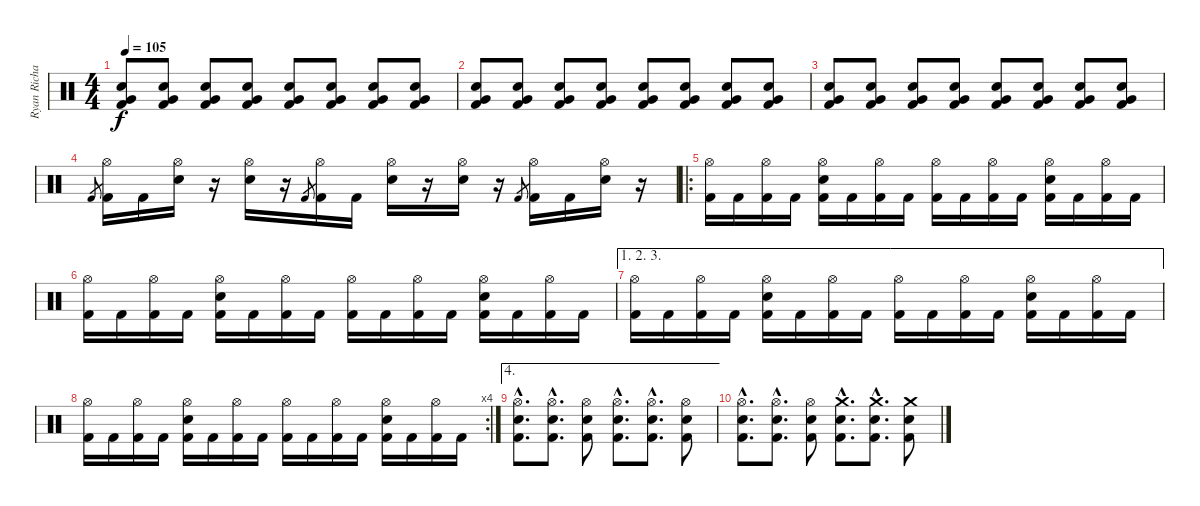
\track ("Ryan Richards" "Ryan Richa") {instrument percussion}
\staff {score}
\articulation defaults
\ts (4 4)
\tempo 105
\clef neutral
\ks c
("Very Low Tom (hit)" "Snare (hit) 2" "Kick (hit) 2").8{dy f} ("Very Low Tom (hit)" "Snare (hit) 2" "Kick (hit) 2").8 ("Very Low Tom (hit)" "Snare (hit) 2" "Kick (hit) 2").8 ("Very Low Tom (hit)" "Snare (hit) 2" "Kick (hit) 2").8 ("Very Low Tom (hit)" "Snare (hit) 2" "Kick (hit) 2").8 ("Very Low Tom (hit)" "Snare (hit) 2" "Kick (hit) 2").8 ("Very Low Tom (hit)" "Snare (hit) 2" "Kick (hit) 2").8 ("Very Low Tom (hit)" "Snare (hit) 2" "Kick (hit) 2").8 |
("Very Low Tom (hit)" "Snare (hit) 2" "Kick (hit) 2").8 ("Very Low Tom (hit)" "Snare (hit) 2" "Kick (hit) 2").8 ("Very Low Tom (hit)" "Snare (hit) 2" "Kick (hit) 2").8 ("Very Low Tom (hit)" "Snare (hit) 2" "Kick (hit) 2").8 ("Very Low Tom (hit)" "Snare (hit) 2" "Kick (hit) 2").8 ("Very Low Tom (hit)" "Snare (hit) 2" "Kick (hit) 2").8 ("Very Low Tom (hit)" "Snare (hit) 2" "Kick (hit) 2").8 ("Very Low Tom (hit)" "Snare (hit) 2" "Kick (hit) 2").8 |
("Very Low Tom (hit)" "Snare (hit) 2" "Kick (hit) 2").8 ("Very Low Tom (hit)" "Snare (hit) 2" "Kick (hit) 2").8 ("Very Low Tom (hit)" "Snare (hit) 2" "Kick (hit) 2").8 ("Very Low Tom (hit)" "Snare (hit) 2" "Kick (hit) 2").8 ("Very Low Tom (hit)" "Snare (hit) 2" "Kick (hit) 2").8 ("Very Low Tom (hit)" "Snare (hit) 2" "Kick (hit) 2").8 ("Very Low Tom (hit)" "Snare (hit) 2" "Kick (hit) 2").8 ("Very Low Tom (hit)" "Snare (hit) 2" "Kick (hit) 2").8 |
"Kick (hit) 2".8{gr} ("Hi-Hat (open)" "Kick (hit) 2").16 "Kick (hit) 2".16 ("Hi-Hat (open)" "Snare (hit) 2").16 r.16 ("Hi-Hat (open)" "Snare (hit) 2").16 r.16 "Kick (hit) 2".8{gr} ("Hi-Hat (open)" "Kick (hit) 2").16 "Kick (hit) 2".16 ("Hi-Hat (open)" "Snare (hit) 2").16 r.16 ("Hi-Hat (open)" "Snare (hit) 2").16 r.16 "Kick (hit) 2".8{gr} ("Hi-Hat (open)" "Kick (hit) 2").16 "Kick (hit) 2".16 ("Hi-Hat (open)" "Snare (hit) 2").16 r.16 |
\ro
("Hi-Hat (open)" "Kick (hit) 2").16 "Kick (hit) 2".16 ("Hi-Hat (open)" "Kick (hit) 2").16 "Kick (hit) 2".16 ("Hi-Hat (open)" "Snare (hit) 2" "Kick (hit) 2").16 "Kick (hit) 2".16 ("Hi-Hat (open)" "Kick (hit) 2").16 "Kick (hit) 2".16 ("Hi-Hat (open)" "Kick (hit) 2").16 "Kick (hit) 2".16 ("Hi-Hat (open)" "Kick (hit) 2").16 "Kick (hit) 2".16 ("Hi-Hat (open)" "Snare (hit) 2" "Kick (hit) 2").16 "Kick (hit) 2".16 ("Hi-Hat (open)" "Kick (hit) 2").16 "Kick (hit) 2".16 |
("Hi-Hat (open)" "Kick (hit) 2").16 "Kick (hit) 2".16 ("Hi-Hat (open)" "Kick (hit) 2").16 "Kick (hit) 2".16 ("Hi-Hat (open)" "Snare (hit) 2" "Kick (hit) 2").16 "Kick (hit) 2".16 ("Hi-Hat (open)" "Kick (hit) 2").16 "Kick (hit) 2".16 ("Hi-Hat (open)" "Kick (hit) 2").16 "Kick (hit) 2".16 ("Hi-Hat (open)" "Kick (hit) 2").16 "Kick (hit) 2".16 ("Hi-Hat (open)" "Snare (hit) 2" "Kick (hit) 2").16 "Kick (hit) 2".16 ("Hi-Hat (open)" "Kick (hit) 2").16 "Kick (hit) 2".16 |
\ae (1 2 3)
("Hi-Hat (open)" "Kick (hit) 2").16 "Kick (hit) 2".16 ("Hi-Hat (open)" "Kick (hit) 2").16 "Kick (hit) 2".16 ("Hi-Hat (open)" "Snare (hit) 2" "Kick (hit) 2").16 "Kick (hit) 2".16 ("Hi-Hat (open)" "Kick (hit) 2").16 "Kick (hit) 2".16 ("Hi-Hat (open)" "Kick (hit) 2").16 "Kick (hit) 2".16 ("Hi-Hat (open)" "Kick (hit) 2").16 "Kick (hit) 2".16 ("Hi-Hat (open)" "Snare (hit) 2" "Kick (hit) 2").16 "Kick (hit) 2".16 ("Hi-Hat (open)" "Kick (hit) 2").16 "Kick (hit) 2".16 |
\rc 4
("Hi-Hat (open)" "Kick (hit) 2").16 "Kick (hit) 2".16 ("Hi-Hat (open)" "Kick (hit) 2").16 "Kick (hit) 2".16 ("Hi-Hat (open)" "Snare (hit) 2" "Kick (hit) 2").16 "Kick (hit) 2".16 ("Hi-Hat (open)" "Kick (hit) 2").16 "Kick (hit) 2".16 ("Hi-Hat (open)" "Kick (hit) 2").16 "Kick (hit) 2".16 ("Hi-Hat (open)" "Kick (hit) 2").16 "Kick (hit) 2".16 ("Hi-Hat (open)" "Snare (hit) 2" "Kick (hit) 2").16 "Kick (hit) 2".16 ("Hi-Hat (open)" "Kick (hit) 2").16 "Kick (hit) 2".16 |
\ae 4
("Hi-Hat (open)"{hac} "Snare (hit) 2"{hac} "Kick (hit) 2"{hac}).8{d} ("Hi-Hat (open)"{hac} "Snare (hit) 2"{hac} "Kick (hit) 2"{hac}).8{d} ("Hi-Hat (open)" "Snare (hit) 2" "Kick (hit) 2").8 ("Hi-Hat (open)"{hac} "Snare (hit) 2"{hac} "Kick (hit) 2"{hac}).8{d} ("Hi-Hat (open)"{hac} "Snare (hit) 2"{hac} "Kick (hit) 2"{hac}).8{d} ("Hi-Hat (open)" "Snare (hit) 2" "Kick (hit) 2").8 |
("Hi-Hat (open)"{hac} "Snare (hit) 2"{hac} "Kick (hit) 2"{hac}).8{d} ("Hi-Hat (open)"{hac} "Snare (hit) 2"{hac} "Kick (hit) 2"{hac}).8{d} ("Hi-Hat (open)" "Snare (hit) 2" "Kick (hit) 2").8 ("Crash medium (hit)"{hac} "Snare (hit) 2"{hac} "Kick (hit) 2"{hac}).8{d} ("Crash medium (hit)"{hac} "Snare (hit) 2"{hac} "Kick (hit) 2"{hac}).8{d} ("Crash medium (hit)" "Snare (hit) 2" "Kick (hit) 2").8
